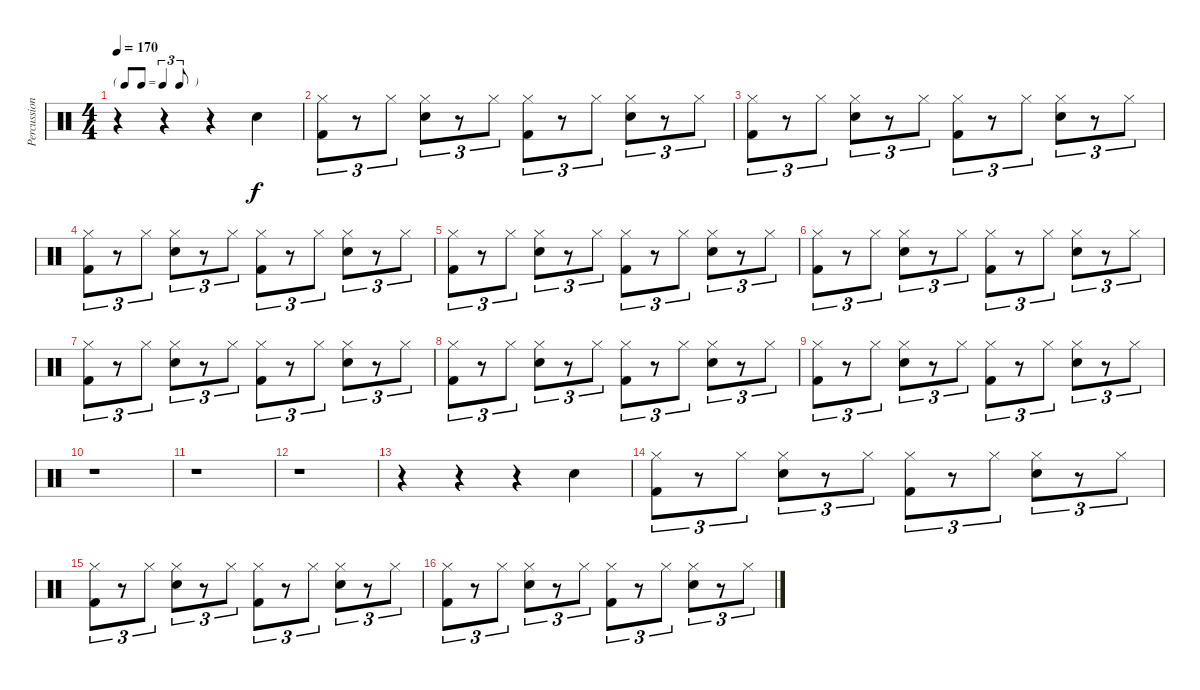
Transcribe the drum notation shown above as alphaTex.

\track ("Percussion" "Percussion") {instrument percussion}
\staff {score}
\articulation defaults
\ts (4 4)
\tf triplet8th
\tempo 170
\clef neutral
\ks c
r.4{dy f} r.4 r.4 "Snare (hit) 2".4 |
("Hi-Hat (closed)" "Kick (hit) 2").8{tu (3 2)} r.8{tu (3 2)} "Hi-Hat (closed)".8{tu (3 2)} ("Hi-Hat (closed)" "Snare (hit) 2").8{tu (3 2)} r.8{tu (3 2)} "Hi-Hat (closed)".8{tu (3 2)} ("Hi-Hat (closed)" "Kick (hit) 2").8{tu (3 2)} r.8{tu (3 2)} "Hi-Hat (closed)".8{tu (3 2)} ("Hi-Hat (closed)" "Snare (hit) 2").8{tu (3 2)} r.8{tu (3 2)} "Hi-Hat (closed)".8{tu (3 2)} |
("Hi-Hat (closed)" "Kick (hit) 2").8{tu (3 2)} r.8{tu (3 2)} "Hi-Hat (closed)".8{tu (3 2)} ("Hi-Hat (closed)" "Snare (hit) 2").8{tu (3 2)} r.8{tu (3 2)} "Hi-Hat (closed)".8{tu (3 2)} ("Hi-Hat (closed)" "Kick (hit) 2").8{tu (3 2)} r.8{tu (3 2)} "Hi-Hat (closed)".8{tu (3 2)} ("Hi-Hat (closed)" "Snare (hit) 2").8{tu (3 2)} r.8{tu (3 2)} "Hi-Hat (closed)".8{tu (3 2)} |
("Hi-Hat (closed)" "Kick (hit) 2").8{tu (3 2)} r.8{tu (3 2)} "Hi-Hat (closed)".8{tu (3 2)} ("Hi-Hat (closed)" "Snare (hit) 2").8{tu (3 2)} r.8{tu (3 2)} "Hi-Hat (closed)".8{tu (3 2)} ("Hi-Hat (closed)" "Kick (hit) 2").8{tu (3 2)} r.8{tu (3 2)} "Hi-Hat (closed)".8{tu (3 2)} ("Hi-Hat (closed)" "Snare (hit) 2").8{tu (3 2)} r.8{tu (3 2)} "Hi-Hat (closed)".8{tu (3 2)} |
("Hi-Hat (closed)" "Kick (hit) 2").8{tu (3 2)} r.8{tu (3 2)} "Hi-Hat (closed)".8{tu (3 2)} ("Hi-Hat (closed)" "Snare (hit) 2").8{tu (3 2)} r.8{tu (3 2)} "Hi-Hat (closed)".8{tu (3 2)} ("Hi-Hat (closed)" "Kick (hit) 2").8{tu (3 2)} r.8{tu (3 2)} "Hi-Hat (closed)".8{tu (3 2)} ("Hi-Hat (closed)" "Snare (hit) 2").8{tu (3 2)} r.8{tu (3 2)} "Hi-Hat (closed)".8{tu (3 2)} |
("Hi-Hat (closed)" "Kick (hit) 2").8{tu (3 2)} r.8{tu (3 2)} "Hi-Hat (closed)".8{tu (3 2)} ("Hi-Hat (closed)" "Snare (hit) 2").8{tu (3 2)} r.8{tu (3 2)} "Hi-Hat (closed)".8{tu (3 2)} ("Hi-Hat (closed)" "Kick (hit) 2").8{tu (3 2)} r.8{tu (3 2)} "Hi-Hat (closed)".8{tu (3 2)} ("Hi-Hat (closed)" "Snare (hit) 2").8{tu (3 2)} r.8{tu (3 2)} "Hi-Hat (closed)".8{tu (3 2)} |
("Hi-Hat (closed)" "Kick (hit) 2").8{tu (3 2)} r.8{tu (3 2)} "Hi-Hat (closed)".8{tu (3 2)} ("Hi-Hat (closed)" "Snare (hit) 2").8{tu (3 2)} r.8{tu (3 2)} "Hi-Hat (closed)".8{tu (3 2)} ("Hi-Hat (closed)" "Kick (hit) 2").8{tu (3 2)} r.8{tu (3 2)} "Hi-Hat (closed)".8{tu (3 2)} ("Hi-Hat (closed)" "Snare (hit) 2").8{tu (3 2)} r.8{tu (3 2)} "Hi-Hat (closed)".8{tu (3 2)} |
("Hi-Hat (closed)" "Kick (hit) 2").8{tu (3 2)} r.8{tu (3 2)} "Hi-Hat (closed)".8{tu (3 2)} ("Hi-Hat (closed)" "Snare (hit) 2").8{tu (3 2)} r.8{tu (3 2)} "Hi-Hat (closed)".8{tu (3 2)} ("Hi-Hat (closed)" "Kick (hit) 2").8{tu (3 2)} r.8{tu (3 2)} "Hi-Hat (closed)".8{tu (3 2)} ("Hi-Hat (closed)" "Snare (hit) 2").8{tu (3 2)} r.8{tu (3 2)} "Hi-Hat (closed)".8{tu (3 2)} |
("Hi-Hat (closed)" "Kick (hit) 2").8{tu (3 2)} r.8{tu (3 2)} "Hi-Hat (closed)".8{tu (3 2)} ("Hi-Hat (closed)" "Snare (hit) 2").8{tu (3 2)} r.8{tu (3 2)} "Hi-Hat (closed)".8{tu (3 2)} ("Hi-Hat (closed)" "Kick (hit) 2").8{tu (3 2)} r.8{tu (3 2)} "Hi-Hat (closed)".8{tu (3 2)} ("Hi-Hat (closed)" "Snare (hit) 2").8{tu (3 2)} r.8{tu (3 2)} "Hi-Hat (closed)".8{tu (3 2)} |
r.1 |
r.1 |
r.1 |
r.4 r.4 r.4 "Snare (hit) 2".4 |
("Hi-Hat (closed)" "Kick (hit) 2").8{tu (3 2)} r.8{tu (3 2)} "Hi-Hat (closed)".8{tu (3 2)} ("Hi-Hat (closed)" "Snare (hit) 2").8{tu (3 2)} r.8{tu (3 2)} "Hi-Hat (closed)".8{tu (3 2)} ("Hi-Hat (closed)" "Kick (hit) 2").8{tu (3 2)} r.8{tu (3 2)} "Hi-Hat (closed)".8{tu (3 2)} ("Hi-Hat (closed)" "Snare (hit) 2").8{tu (3 2)} r.8{tu (3 2)} "Hi-Hat (closed)".8{tu (3 2)} |
("Hi-Hat (closed)" "Kick (hit) 2").8{tu (3 2)} r.8{tu (3 2)} "Hi-Hat (closed)".8{tu (3 2)} ("Hi-Hat (closed)" "Snare (hit) 2").8{tu (3 2)} r.8{tu (3 2)} "Hi-Hat (closed)".8{tu (3 2)} ("Hi-Hat (closed)" "Kick (hit) 2").8{tu (3 2)} r.8{tu (3 2)} "Hi-Hat (closed)".8{tu (3 2)} ("Hi-Hat (closed)" "Snare (hit) 2").8{tu (3 2)} r.8{tu (3 2)} "Hi-Hat (closed)".8{tu (3 2)} |
("Hi-Hat (closed)" "Kick (hit) 2").8{tu (3 2)} r.8{tu (3 2)} "Hi-Hat (closed)".8{tu (3 2)} ("Hi-Hat (closed)" "Snare (hit) 2").8{tu (3 2)} r.8{tu (3 2)} "Hi-Hat (closed)".8{tu (3 2)} ("Hi-Hat (closed)" "Kick (hit) 2").8{tu (3 2)} r.8{tu (3 2)} "Hi-Hat (closed)".8{tu (3 2)} ("Hi-Hat (closed)" "Snare (hit) 2").8{tu (3 2)} r.8{tu (3 2)} "Hi-Hat (closed)".8{tu (3 2)}
